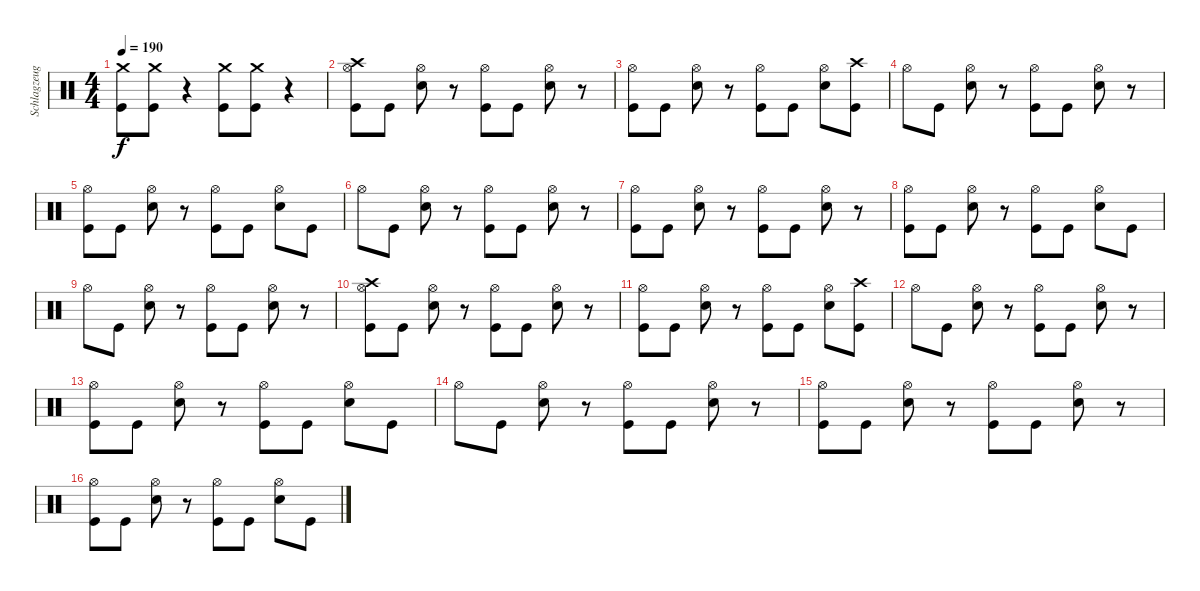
\track ("Schlagzeug" "Schlagzeug") {instrument percussion}
\staff {score}
\articulation defaults
\ts (4 4)
\tempo 190
\clef neutral
\ks c
("Crash medium (hit)" "Kick (hit)").8{dy f} ("Crash medium (hit)" "Kick (hit)").8 r.4 ("Crash medium (hit)" "Kick (hit)").8 ("Crash medium (hit)" "Kick (hit)").8 r.4 |
("Crash high (hit)" "Kick (hit)" "Hi-Hat (open)").8 "Kick (hit)".8 ("Electric Snare (hit)" "Hi-Hat (open)").8 r.8 ("Kick (hit)" "Hi-Hat (open)").8 "Kick (hit)".8 ("Electric Snare (hit)" "Hi-Hat (open)").8 r.8 |
("Kick (hit)" "Hi-Hat (open)").8 "Kick (hit)".8 ("Electric Snare (hit)" "Hi-Hat (open)").8 r.8 ("Kick (hit)" "Hi-Hat (open)").8 "Kick (hit)".8 ("Electric Snare (hit)" "Hi-Hat (open)").8 ("Kick (hit)" "Crash high (hit)").8 |
"Hi-Hat (open)".8 "Kick (hit)".8 ("Electric Snare (hit)" "Hi-Hat (open)").8 r.8 ("Kick (hit)" "Hi-Hat (open)").8 "Kick (hit)".8 ("Electric Snare (hit)" "Hi-Hat (open)").8 r.8 |
("Kick (hit)" "Hi-Hat (open)").8 "Kick (hit)".8 ("Electric Snare (hit)" "Hi-Hat (open)").8 r.8 ("Kick (hit)" "Hi-Hat (open)").8 "Kick (hit)".8 ("Electric Snare (hit)" "Hi-Hat (open)").8 "Kick (hit)".8 |
"Hi-Hat (open)".8 "Kick (hit)".8 ("Electric Snare (hit)" "Hi-Hat (open)").8 r.8 ("Kick (hit)" "Hi-Hat (open)").8 "Kick (hit)".8 ("Electric Snare (hit)" "Hi-Hat (open)").8 r.8 |
("Kick (hit)" "Hi-Hat (open)").8 "Kick (hit)".8 ("Electric Snare (hit)" "Hi-Hat (open)").8 r.8 ("Kick (hit)" "Hi-Hat (open)").8 "Kick (hit)".8 ("Electric Snare (hit)" "Hi-Hat (open)").8 r.8 |
("Kick (hit)" "Hi-Hat (open)").8 "Kick (hit)".8 ("Electric Snare (hit)" "Hi-Hat (open)").8 r.8 ("Kick (hit)" "Hi-Hat (open)").8 "Kick (hit)".8 ("Electric Snare (hit)" "Hi-Hat (open)").8 "Kick (hit)".8 |
"Hi-Hat (open)".8 "Kick (hit)".8 ("Electric Snare (hit)" "Hi-Hat (open)").8 r.8 ("Kick (hit)" "Hi-Hat (open)").8 "Kick (hit)".8 ("Electric Snare (hit)" "Hi-Hat (open)").8 r.8 |
("Crash high (hit)" "Kick (hit)" "Hi-Hat (open)").8 "Kick (hit)".8 ("Electric Snare (hit)" "Hi-Hat (open)").8 r.8 ("Kick (hit)" "Hi-Hat (open)").8 "Kick (hit)".8 ("Electric Snare (hit)" "Hi-Hat (open)").8 r.8 |
("Kick (hit)" "Hi-Hat (open)").8 "Kick (hit)".8 ("Electric Snare (hit)" "Hi-Hat (open)").8 r.8 ("Kick (hit)" "Hi-Hat (open)").8 "Kick (hit)".8 ("Electric Snare (hit)" "Hi-Hat (open)").8 ("Kick (hit)" "Crash high (hit)").8 |
"Hi-Hat (open)".8 "Kick (hit)".8 ("Electric Snare (hit)" "Hi-Hat (open)").8 r.8 ("Kick (hit)" "Hi-Hat (open)").8 "Kick (hit)".8 ("Electric Snare (hit)" "Hi-Hat (open)").8 r.8 |
("Kick (hit)" "Hi-Hat (open)").8 "Kick (hit)".8 ("Electric Snare (hit)" "Hi-Hat (open)").8 r.8 ("Kick (hit)" "Hi-Hat (open)").8 "Kick (hit)".8 ("Electric Snare (hit)" "Hi-Hat (open)").8 "Kick (hit)".8 |
"Hi-Hat (open)".8 "Kick (hit)".8 ("Electric Snare (hit)" "Hi-Hat (open)").8 r.8 ("Kick (hit)" "Hi-Hat (open)").8 "Kick (hit)".8 ("Electric Snare (hit)" "Hi-Hat (open)").8 r.8 |
("Kick (hit)" "Hi-Hat (open)").8 "Kick (hit)".8 ("Electric Snare (hit)" "Hi-Hat (open)").8 r.8 ("Kick (hit)" "Hi-Hat (open)").8 "Kick (hit)".8 ("Electric Snare (hit)" "Hi-Hat (open)").8 r.8 |
("Kick (hit)" "Hi-Hat (open)").8 "Kick (hit)".8 ("Electric Snare (hit)" "Hi-Hat (open)").8 r.8 ("Kick (hit)" "Hi-Hat (open)").8 "Kick (hit)".8 ("Electric Snare (hit)" "Hi-Hat (open)").8 "Kick (hit)".8
